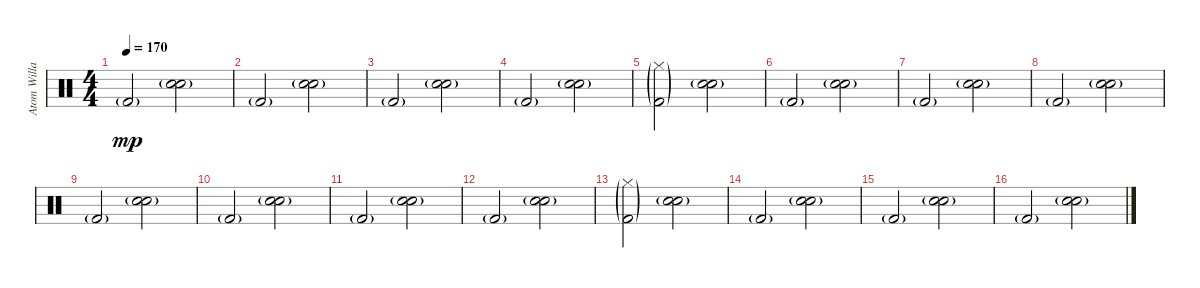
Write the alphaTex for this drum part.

\track ("Atom Willard" "Atom Willa") {instrument percussion}
\staff {score}
\articulation defaults
\ts (4 4)
\tempo 170
\clef neutral
\ks c "Kick (hit) 2"{g}.2{dy mp volume 11}
("Electric Snare (hit)"{g} "Snare (hit) 2"{g}).2 |
"Kick (hit) 2"{g}.2{volume 8} ("Electric Snare (hit)"{g} "Snare (hit) 2"{g}).2 |
"Kick (hit) 2"{g}.2{volume 8} ("Electric Snare (hit)"{g} "Snare (hit) 2"{g}).2 |
"Kick (hit) 2"{g}.2{volume 8} ("Electric Snare (hit)"{g} "Snare (hit) 2"{g}).2 |
("Hi-Hat (closed)"{g} "Kick (hit) 2"{g}).2{volume 11} ("Electric Snare (hit)"{g} "Snare (hit) 2"{g}).2 |
"Kick (hit) 2"{g}.2{volume 8} ("Electric Snare (hit)"{g} "Snare (hit) 2"{g}).2 |
"Kick (hit) 2"{g}.2{volume 8} ("Electric Snare (hit)"{g} "Snare (hit) 2"{g}).2 |
"Kick (hit) 2"{g}.2{volume 8} ("Electric Snare (hit)"{g} "Snare (hit) 2"{g}).2 |
"Kick (hit) 2"{g}.2{volume 11} ("Electric Snare (hit)"{g} "Snare (hit) 2"{g}).2 |
"Kick (hit) 2"{g}.2{volume 8} ("Electric Snare (hit)"{g} "Snare (hit) 2"{g}).2 |
"Kick (hit) 2"{g}.2{volume 8} ("Electric Snare (hit)"{g} "Snare (hit) 2"{g}).2 |
"Kick (hit) 2"{g}.2{volume 8} ("Electric Snare (hit)"{g} "Snare (hit) 2"{g}).2 |
("Hi-Hat (closed)"{g} "Kick (hit) 2"{g}).2{volume 11} ("Electric Snare (hit)"{g} "Snare (hit) 2"{g}).2 |
"Kick (hit) 2"{g}.2{volume 8} ("Electric Snare (hit)"{g} "Snare (hit) 2"{g}).2 |
"Kick (hit) 2"{g}.2{volume 8} ("Electric Snare (hit)"{g} "Snare (hit) 2"{g}).2 |
"Kick (hit) 2"{g}.2{volume 8} ("Electric Snare (hit)"{g} "Snare (hit) 2"{g}).2
